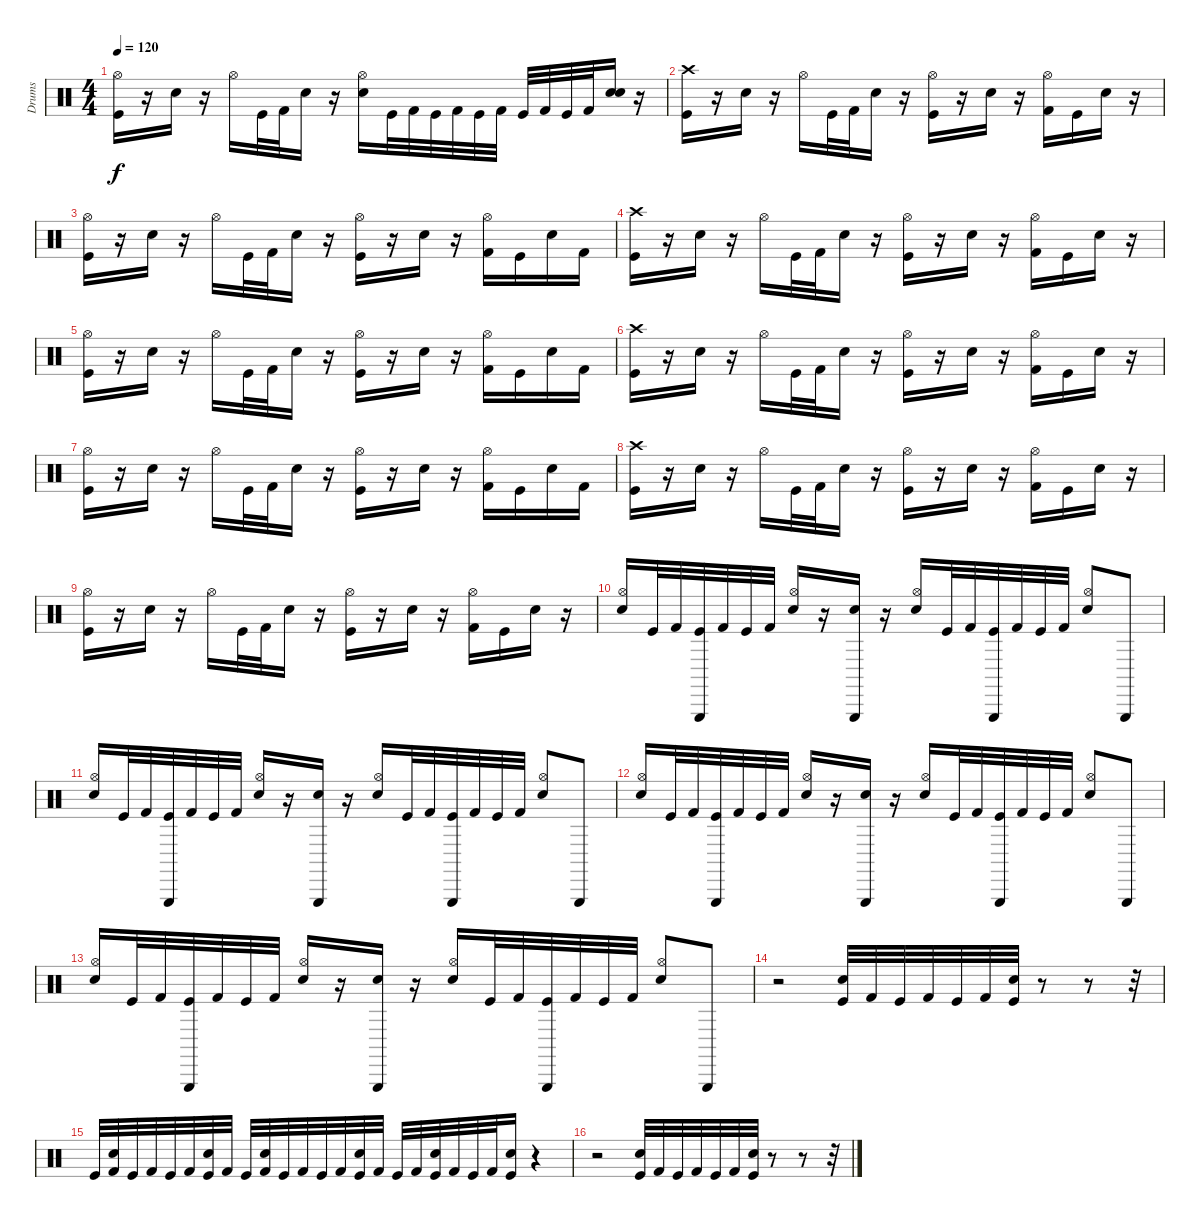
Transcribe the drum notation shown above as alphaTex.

\track ("Drums" "Drums") {instrument percussion}
\staff {score}
\articulation defaults
\ts (4 4)
\tempo 120
\clef neutral
\ks c
("Hi-Hat (open)" "Kick (hit)").16{dy f} r.16 "Electric Snare (hit)".16 r.16 "Hi-Hat (open)".16 "Kick (hit)".32 "Kick (hit) 2".32 "Electric Snare (hit)".16 r.16 ("Hi-Hat (open)" "Electric Snare (hit)").16 "Kick (hit)".32 "Kick (hit) 2".32 "Kick (hit)".32 "Kick (hit) 2".32 "Kick (hit)".32 "Kick (hit) 2".32 "Kick (hit)".32 "Kick (hit) 2".32 "Kick (hit)".32 "Kick (hit) 2".32 ("Electric Snare (hit)" "Electric Snare (hit)").16 r.16 |
("Crash high (hit)" "Kick (hit)").16 r.16 "Electric Snare (hit)".16 r.16 "Hi-Hat (open)".16 "Kick (hit)".32 "Kick (hit) 2".32 "Electric Snare (hit)".16 r.16 ("Hi-Hat (open)" "Kick (hit)").16 r.16 "Electric Snare (hit)".16 r.16 ("Hi-Hat (open)" "Kick (hit) 2").16 "Kick (hit)".16 "Electric Snare (hit)".16 r.16 |
("Hi-Hat (open)" "Kick (hit)").16 r.16 "Electric Snare (hit)".16 r.16 "Hi-Hat (open)".16 "Kick (hit)".32 "Kick (hit) 2".32 "Electric Snare (hit)".16 r.16 ("Hi-Hat (open)" "Kick (hit)").16 r.16 "Electric Snare (hit)".16 r.16 ("Hi-Hat (open)" "Kick (hit) 2").16 "Kick (hit)".16 "Electric Snare (hit)".16 "Kick (hit) 2".16 |
("Crash high (hit)" "Kick (hit)").16 r.16 "Electric Snare (hit)".16 r.16 "Hi-Hat (open)".16 "Kick (hit)".32 "Kick (hit) 2".32 "Electric Snare (hit)".16 r.16 ("Hi-Hat (open)" "Kick (hit)").16 r.16 "Electric Snare (hit)".16 r.16 ("Hi-Hat (open)" "Kick (hit) 2").16 "Kick (hit)".16 "Electric Snare (hit)".16 r.16 |
("Hi-Hat (open)" "Kick (hit)").16 r.16 "Electric Snare (hit)".16 r.16 "Hi-Hat (open)".16 "Kick (hit)".32 "Kick (hit) 2".32 "Electric Snare (hit)".16 r.16 ("Hi-Hat (open)" "Kick (hit)").16 r.16 "Electric Snare (hit)".16 r.16 ("Hi-Hat (open)" "Kick (hit) 2").16 "Kick (hit)".16 "Electric Snare (hit)".16 "Kick (hit) 2".16 |
("Crash high (hit)" "Kick (hit)").16 r.16 "Electric Snare (hit)".16 r.16 "Hi-Hat (open)".16 "Kick (hit)".32 "Kick (hit) 2".32 "Electric Snare (hit)".16 r.16 ("Hi-Hat (open)" "Kick (hit)").16 r.16 "Electric Snare (hit)".16 r.16 ("Hi-Hat (open)" "Kick (hit) 2").16 "Kick (hit)".16 "Electric Snare (hit)".16 r.16 |
("Hi-Hat (open)" "Kick (hit)").16 r.16 "Electric Snare (hit)".16 r.16 "Hi-Hat (open)".16 "Kick (hit)".32 "Kick (hit) 2".32 "Electric Snare (hit)".16 r.16 ("Hi-Hat (open)" "Kick (hit)").16 r.16 "Electric Snare (hit)".16 r.16 ("Hi-Hat (open)" "Kick (hit) 2").16 "Kick (hit)".16 "Electric Snare (hit)".16 "Kick (hit) 2".16 |
("Crash high (hit)" "Kick (hit)").16 r.16 "Electric Snare (hit)".16 r.16 "Hi-Hat (open)".16 "Kick (hit)".32 "Kick (hit) 2".32 "Electric Snare (hit)".16 r.16 ("Hi-Hat (open)" "Kick (hit)").16 r.16 "Electric Snare (hit)".16 r.16 ("Hi-Hat (open)" "Kick (hit) 2").16 "Kick (hit)".16 "Electric Snare (hit)".16 r.16 |
("Hi-Hat (open)" "Kick (hit)").16 r.16 "Electric Snare (hit)".16 r.16 "Hi-Hat (open)".16 "Kick (hit)".32 "Kick (hit) 2".32 "Electric Snare (hit)".16 r.16 ("Hi-Hat (open)" "Kick (hit)").16 r.16 "Electric Snare (hit)".16 r.16 ("Hi-Hat (open)" "Kick (hit) 2").16 "Kick (hit)".16 "Electric Snare (hit)".16 r.16 |
("Hi-Hat (open)" "Electric Snare (hit)").16 "Kick (hit)".32 "Kick (hit) 2".32 ("Triangle (hit)" "Kick (hit)").32 "Kick (hit) 2".32 "Kick (hit)".32 "Kick (hit) 2".32 ("Hi-Hat (open)" "Electric Snare (hit)").16 r.16 ("Triangle (hit)" "Electric Snare (hit)").16 r.16 ("Hi-Hat (open)" "Electric Snare (hit)").16 "Kick (hit)".32 "Kick (hit) 2".32 ("Triangle (hit)" "Kick (hit)").32 "Kick (hit) 2".32 "Kick (hit)".32 "Kick (hit) 2".32 ("Hi-Hat (open)" "Electric Snare (hit)").8 "Triangle (hit)".8 |
("Hi-Hat (open)" "Electric Snare (hit)").16 "Kick (hit)".32 "Kick (hit) 2".32 ("Triangle (hit)" "Kick (hit)").32 "Kick (hit) 2".32 "Kick (hit)".32 "Kick (hit) 2".32 ("Hi-Hat (open)" "Electric Snare (hit)").16 r.16 ("Triangle (hit)" "Electric Snare (hit)").16 r.16 ("Hi-Hat (open)" "Electric Snare (hit)").16 "Kick (hit)".32 "Kick (hit) 2".32 ("Triangle (hit)" "Kick (hit)").32 "Kick (hit) 2".32 "Kick (hit)".32 "Kick (hit) 2".32 ("Hi-Hat (open)" "Electric Snare (hit)").8 "Triangle (hit)".8 |
("Hi-Hat (open)" "Electric Snare (hit)").16 "Kick (hit)".32 "Kick (hit) 2".32 ("Triangle (hit)" "Kick (hit)").32 "Kick (hit) 2".32 "Kick (hit)".32 "Kick (hit) 2".32 ("Hi-Hat (open)" "Electric Snare (hit)").16 r.16 ("Triangle (hit)" "Electric Snare (hit)").16 r.16 ("Hi-Hat (open)" "Electric Snare (hit)").16 "Kick (hit)".32 "Kick (hit) 2".32 ("Triangle (hit)" "Kick (hit)").32 "Kick (hit) 2".32 "Kick (hit)".32 "Kick (hit) 2".32 ("Hi-Hat (open)" "Electric Snare (hit)").8 "Triangle (hit)".8 |
("Hi-Hat (open)" "Electric Snare (hit)").16 "Kick (hit)".32 "Kick (hit) 2".32 ("Triangle (hit)" "Kick (hit)").32 "Kick (hit) 2".32 "Kick (hit)".32 "Kick (hit) 2".32 ("Hi-Hat (open)" "Electric Snare (hit)").16 r.16 ("Triangle (hit)" "Electric Snare (hit)").16 r.16 ("Hi-Hat (open)" "Electric Snare (hit)").16 "Kick (hit)".32 "Kick (hit) 2".32 ("Triangle (hit)" "Kick (hit)").32 "Kick (hit) 2".32 "Kick (hit)".32 "Kick (hit) 2".32 ("Hi-Hat (open)" "Electric Snare (hit)").8 "Triangle (hit)".8 |
r.2 ("Electric Snare (hit)" "Kick (hit)").32 "Kick (hit) 2".32 "Kick (hit)".32 "Kick (hit) 2".32 "Kick (hit)".32 "Kick (hit) 2".32 ("Electric Snare (hit)" "Kick (hit)").32 r.8 r.8 r.32 |
"Kick (hit)".32 ("Electric Snare (hit)" "Kick (hit) 2").32 "Kick (hit)".32 "Kick (hit) 2".32 "Kick (hit)".32 "Kick (hit) 2".32 ("Electric Snare (hit)" "Kick (hit)").32 "Kick (hit) 2".32 "Kick (hit)".32 ("Electric Snare (hit)" "Kick (hit) 2").32 "Kick (hit)".32 "Kick (hit) 2".32 "Kick (hit)".32 "Kick (hit) 2".32 ("Electric Snare (hit)" "Kick (hit)").32 "Kick (hit) 2".32 "Kick (hit)".32 "Kick (hit) 2".32 ("Electric Snare (hit)" "Kick (hit)").32 "Kick (hit) 2".32 "Kick (hit)".32 "Kick (hit) 2".32 ("Electric Snare (hit)" "Kick (hit)").16 r.4 |
r.2 ("Electric Snare (hit)" "Kick (hit)").32 "Kick (hit) 2".32 "Kick (hit)".32 "Kick (hit) 2".32 "Kick (hit)".32 "Kick (hit) 2".32 ("Electric Snare (hit)" "Kick (hit)").32 r.8 r.8 r.32
